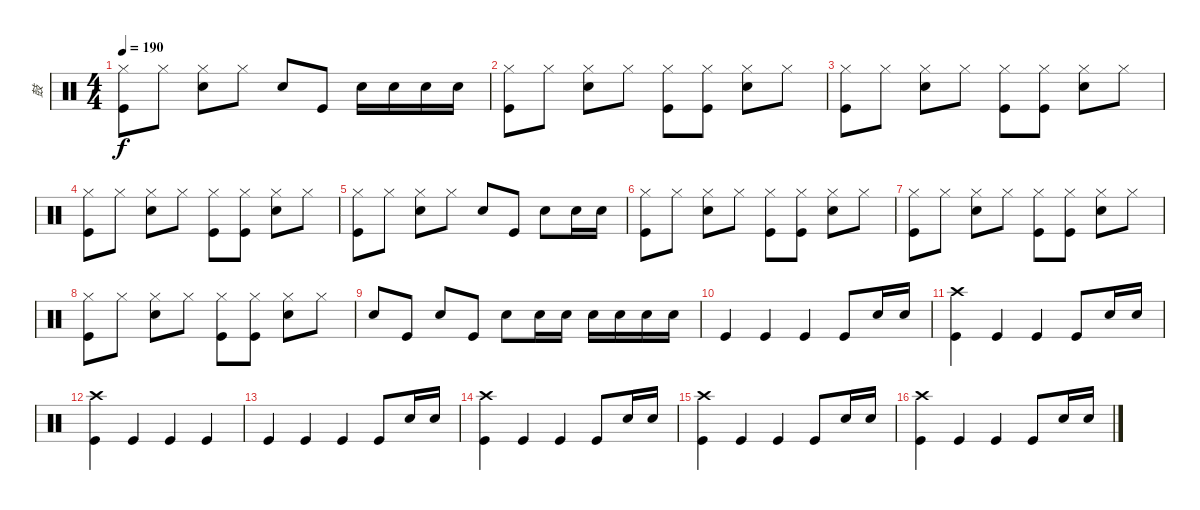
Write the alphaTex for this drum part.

\track ("鼓" "鼓") {instrument percussion}
\staff {score}
\articulation defaults
\ts (4 4)
\tempo 190
\clef neutral
\ks c
("Hi-Hat (closed)" "Kick (hit)").8{dy f} "Hi-Hat (closed)".8 ("Hi-Hat (closed)" "Snare (hit) 2").8 "Hi-Hat (closed)".8 "Snare (hit) 2".8 "Kick (hit)".8 "Snare (hit) 2".16 "Snare (hit) 2".16 "Snare (hit) 2".16 "Snare (hit) 2".16 |
("Hi-Hat (closed)" "Kick (hit)").8 "Hi-Hat (closed)".8 ("Hi-Hat (closed)" "Snare (hit) 2").8 "Hi-Hat (closed)".8 ("Hi-Hat (closed)" "Kick (hit)").8 ("Hi-Hat (closed)" "Kick (hit)").8 ("Hi-Hat (closed)" "Snare (hit) 2").8 "Hi-Hat (closed)".8 |
("Hi-Hat (closed)" "Kick (hit)").8 "Hi-Hat (closed)".8 ("Hi-Hat (closed)" "Snare (hit) 2").8 "Hi-Hat (closed)".8 ("Hi-Hat (closed)" "Kick (hit)").8 ("Hi-Hat (closed)" "Kick (hit)").8 ("Hi-Hat (closed)" "Snare (hit) 2").8 "Hi-Hat (closed)".8 |
("Hi-Hat (closed)" "Kick (hit)").8 "Hi-Hat (closed)".8 ("Hi-Hat (closed)" "Snare (hit) 2").8 "Hi-Hat (closed)".8 ("Hi-Hat (closed)" "Kick (hit)").8 ("Hi-Hat (closed)" "Kick (hit)").8 ("Hi-Hat (closed)" "Snare (hit) 2").8 "Hi-Hat (closed)".8 |
("Hi-Hat (closed)" "Kick (hit)").8 "Hi-Hat (closed)".8 ("Hi-Hat (closed)" "Snare (hit) 2").8 "Hi-Hat (closed)".8 "Snare (hit) 2".8 "Kick (hit)".8 "Snare (hit) 2".8 "Snare (hit) 2".16 "Snare (hit) 2".16 |
("Hi-Hat (closed)" "Kick (hit)").8 "Hi-Hat (closed)".8 ("Hi-Hat (closed)" "Snare (hit) 2").8 "Hi-Hat (closed)".8 ("Hi-Hat (closed)" "Kick (hit)").8 ("Hi-Hat (closed)" "Kick (hit)").8 ("Hi-Hat (closed)" "Snare (hit) 2").8 "Hi-Hat (closed)".8 |
("Hi-Hat (closed)" "Kick (hit)").8 "Hi-Hat (closed)".8 ("Hi-Hat (closed)" "Snare (hit) 2").8 "Hi-Hat (closed)".8 ("Hi-Hat (closed)" "Kick (hit)").8 ("Hi-Hat (closed)" "Kick (hit)").8 ("Hi-Hat (closed)" "Snare (hit) 2").8 "Hi-Hat (closed)".8 |
("Hi-Hat (closed)" "Kick (hit)").8 "Hi-Hat (closed)".8 ("Hi-Hat (closed)" "Snare (hit) 2").8 "Hi-Hat (closed)".8 ("Hi-Hat (closed)" "Kick (hit)").8 ("Hi-Hat (closed)" "Kick (hit)").8 ("Hi-Hat (closed)" "Snare (hit) 2").8 "Hi-Hat (closed)".8 |
"Snare (hit) 2".8 "Kick (hit)".8 "Snare (hit) 2".8 "Kick (hit)".8 "Snare (hit) 2".8 "Snare (hit) 2".16 "Snare (hit) 2".16 "Snare (hit) 2".16 "Snare (hit) 2".16 "Snare (hit) 2".16 "Snare (hit) 2".16 |
"Kick (hit)".4 "Kick (hit)".4 "Kick (hit)".4 "Kick (hit)".8 "Snare (hit) 2".16 "Snare (hit) 2".16 |
("Crash high (hit)" "Kick (hit)").4 "Kick (hit)".4 "Kick (hit)".4 "Kick (hit)".8 "Snare (hit) 2".16 "Snare (hit) 2".16 |
("Crash high (hit)" "Kick (hit)").4 "Kick (hit)".4 "Kick (hit)".4 "Kick (hit)".4 |
"Kick (hit)".4 "Kick (hit)".4 "Kick (hit)".4 "Kick (hit)".8 "Snare (hit) 2".16 "Snare (hit) 2".16 |
("Crash high (hit)" "Kick (hit)").4 "Kick (hit)".4 "Kick (hit)".4 "Kick (hit)".8 "Snare (hit) 2".16 "Snare (hit) 2".16 |
("Crash high (hit)" "Kick (hit)").4 "Kick (hit)".4 "Kick (hit)".4 "Kick (hit)".8 "Snare (hit) 2".16 "Snare (hit) 2".16 |
("Crash high (hit)" "Kick (hit)").4 "Kick (hit)".4 "Kick (hit)".4 "Kick (hit)".8 "Snare (hit) 2".16 "Snare (hit) 2".16
